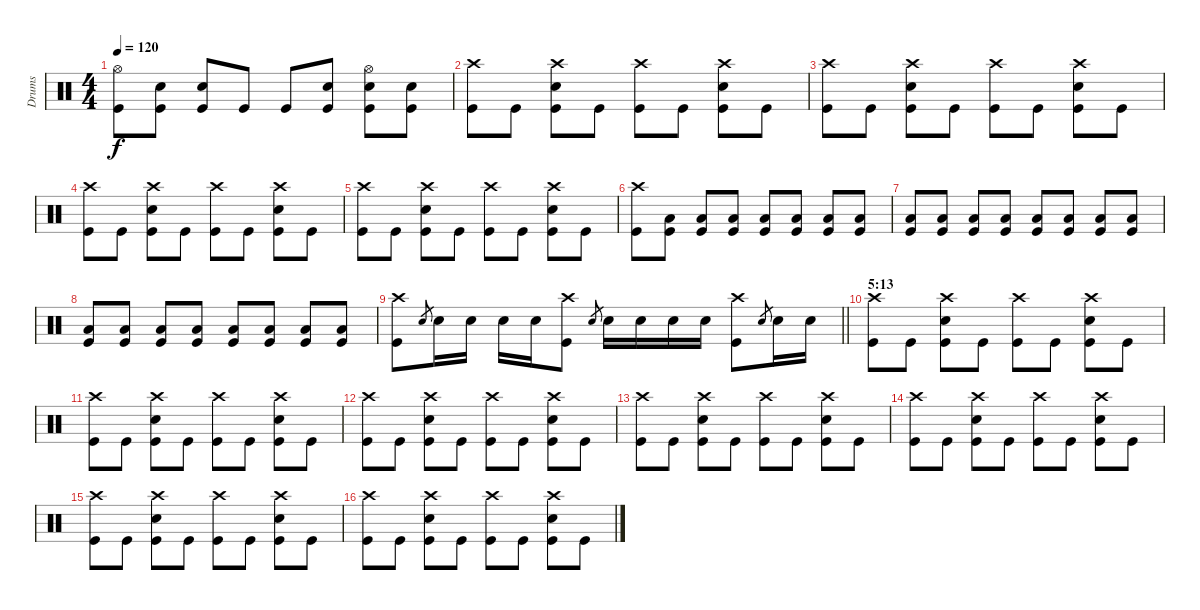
\track ("Drums" "Drums") {instrument percussion}
\staff {score}
\articulation defaults
\ts (4 4)
\tempo 120
\clef neutral
\ks c
("Hi-Hat (open)" "Kick (hit)").8{dy f} ("Electric Snare (hit)" "Kick (hit)").8 ("Electric Snare (hit)" "Kick (hit)").8 "Kick (hit)".8 "Kick (hit)".8 ("Electric Snare (hit)" "Kick (hit)").8 ("Hi-Hat (open)" "Electric Snare (hit)" "Kick (hit)").8 ("Electric Snare (hit)" "Kick (hit)").8 |
("Crash high (hit)" "Kick (hit)").8 "Kick (hit)".8 ("Crash high (hit)" "Electric Snare (hit)" "Kick (hit)").8 "Kick (hit)".8 ("Crash high (hit)" "Kick (hit)").8 "Kick (hit)".8 ("Crash high (hit)" "Electric Snare (hit)" "Kick (hit)").8 "Kick (hit)".8 |
("Crash high (hit)" "Kick (hit)").8 "Kick (hit)".8 ("Crash high (hit)" "Electric Snare (hit)" "Kick (hit)").8 "Kick (hit)".8 ("Crash high (hit)" "Kick (hit)").8 "Kick (hit)".8 ("Crash high (hit)" "Electric Snare (hit)" "Kick (hit)").8 "Kick (hit)".8 |
("Crash high (hit)" "Kick (hit)").8 "Kick (hit)".8 ("Crash high (hit)" "Electric Snare (hit)" "Kick (hit)").8 "Kick (hit)".8 ("Crash high (hit)" "Kick (hit)").8 "Kick (hit)".8 ("Crash high (hit)" "Electric Snare (hit)" "Kick (hit)").8 "Kick (hit)".8 |
("Crash high (hit)" "Kick (hit)").8 "Kick (hit)".8 ("Crash high (hit)" "Electric Snare (hit)" "Kick (hit)").8 "Kick (hit)".8 ("Crash high (hit)" "Kick (hit)").8 "Kick (hit)".8 ("Crash high (hit)" "Electric Snare (hit)" "Kick (hit)").8 "Kick (hit)".8 |
("Crash high (hit)" "Kick (hit)").8 ("Low Floor Tom (hit)" "Kick (hit)").8 ("Low Floor Tom (hit)" "Kick (hit)").8 ("Low Floor Tom (hit)" "Kick (hit)").8 ("Low Floor Tom (hit)" "Kick (hit)").8 ("Low Floor Tom (hit)" "Kick (hit)").8 ("Low Floor Tom (hit)" "Kick (hit)").8 ("Low Floor Tom (hit)" "Kick (hit)").8 |
("Low Floor Tom (hit)" "Kick (hit)").8 ("Low Floor Tom (hit)" "Kick (hit)").8 ("Low Floor Tom (hit)" "Kick (hit)").8 ("Low Floor Tom (hit)" "Kick (hit)").8 ("Low Floor Tom (hit)" "Kick (hit)").8 ("Low Floor Tom (hit)" "Kick (hit)").8 ("Low Floor Tom (hit)" "Kick (hit)").8 ("Low Floor Tom (hit)" "Kick (hit)").8 |
("Low Floor Tom (hit)" "Kick (hit)").8 ("Low Floor Tom (hit)" "Kick (hit)").8 ("Low Floor Tom (hit)" "Kick (hit)").8 ("Low Floor Tom (hit)" "Kick (hit)").8 ("Low Floor Tom (hit)" "Kick (hit)").8 ("Low Floor Tom (hit)" "Kick (hit)").8 ("Low Floor Tom (hit)" "Kick (hit)").8 ("Low Floor Tom (hit)" "Kick (hit)").8 |
\barLineRight lightlight
("Crash high (hit)" "Kick (hit)").8 "Electric Snare (hit)".8{gr} "Electric Snare (hit)".16 "Electric Snare (hit)".16 "Electric Snare (hit)".16 "Electric Snare (hit)".16 ("Crash high (hit)" "Kick (hit)").8 "Electric Snare (hit)".8{gr} "Electric Snare (hit)".16 "Electric Snare (hit)".16 "Electric Snare (hit)".16 "Electric Snare (hit)".16 ("Crash high (hit)" "Kick (hit)").8 "Electric Snare (hit)".8{gr} "Electric Snare (hit)".16 "Electric Snare (hit)".16 |
\section ("" "5:13")
("Crash high (hit)" "Kick (hit)").8 "Kick (hit)".8 ("Crash high (hit)" "Electric Snare (hit)" "Kick (hit)").8 "Kick (hit)".8 ("Crash high (hit)" "Kick (hit)").8 "Kick (hit)".8 ("Crash high (hit)" "Electric Snare (hit)" "Kick (hit)").8 "Kick (hit)".8 |
("Crash high (hit)" "Kick (hit)").8 "Kick (hit)".8 ("Crash high (hit)" "Electric Snare (hit)" "Kick (hit)").8 "Kick (hit)".8 ("Crash high (hit)" "Kick (hit)").8 "Kick (hit)".8 ("Crash high (hit)" "Electric Snare (hit)" "Kick (hit)").8 "Kick (hit)".8 |
("Crash high (hit)" "Kick (hit)").8 "Kick (hit)".8 ("Crash high (hit)" "Electric Snare (hit)" "Kick (hit)").8 "Kick (hit)".8 ("Crash high (hit)" "Kick (hit)").8 "Kick (hit)".8 ("Crash high (hit)" "Electric Snare (hit)" "Kick (hit)").8 "Kick (hit)".8 |
("Crash high (hit)" "Kick (hit)").8 "Kick (hit)".8 ("Crash high (hit)" "Electric Snare (hit)" "Kick (hit)").8 "Kick (hit)".8 ("Crash high (hit)" "Kick (hit)").8 "Kick (hit)".8 ("Crash high (hit)" "Electric Snare (hit)" "Kick (hit)").8 "Kick (hit)".8 |
("Crash high (hit)" "Kick (hit)").8 "Kick (hit)".8 ("Crash high (hit)" "Electric Snare (hit)" "Kick (hit)").8 "Kick (hit)".8 ("Crash high (hit)" "Kick (hit)").8 "Kick (hit)".8 ("Crash high (hit)" "Electric Snare (hit)" "Kick (hit)").8 "Kick (hit)".8 |
("Crash high (hit)" "Kick (hit)").8 "Kick (hit)".8 ("Crash high (hit)" "Electric Snare (hit)" "Kick (hit)").8 "Kick (hit)".8 ("Crash high (hit)" "Kick (hit)").8 "Kick (hit)".8 ("Crash high (hit)" "Electric Snare (hit)" "Kick (hit)").8 "Kick (hit)".8 |
("Crash high (hit)" "Kick (hit)").8 "Kick (hit)".8 ("Crash high (hit)" "Electric Snare (hit)" "Kick (hit)").8 "Kick (hit)".8 ("Crash high (hit)" "Kick (hit)").8 "Kick (hit)".8 ("Crash high (hit)" "Electric Snare (hit)" "Kick (hit)").8 "Kick (hit)".8
